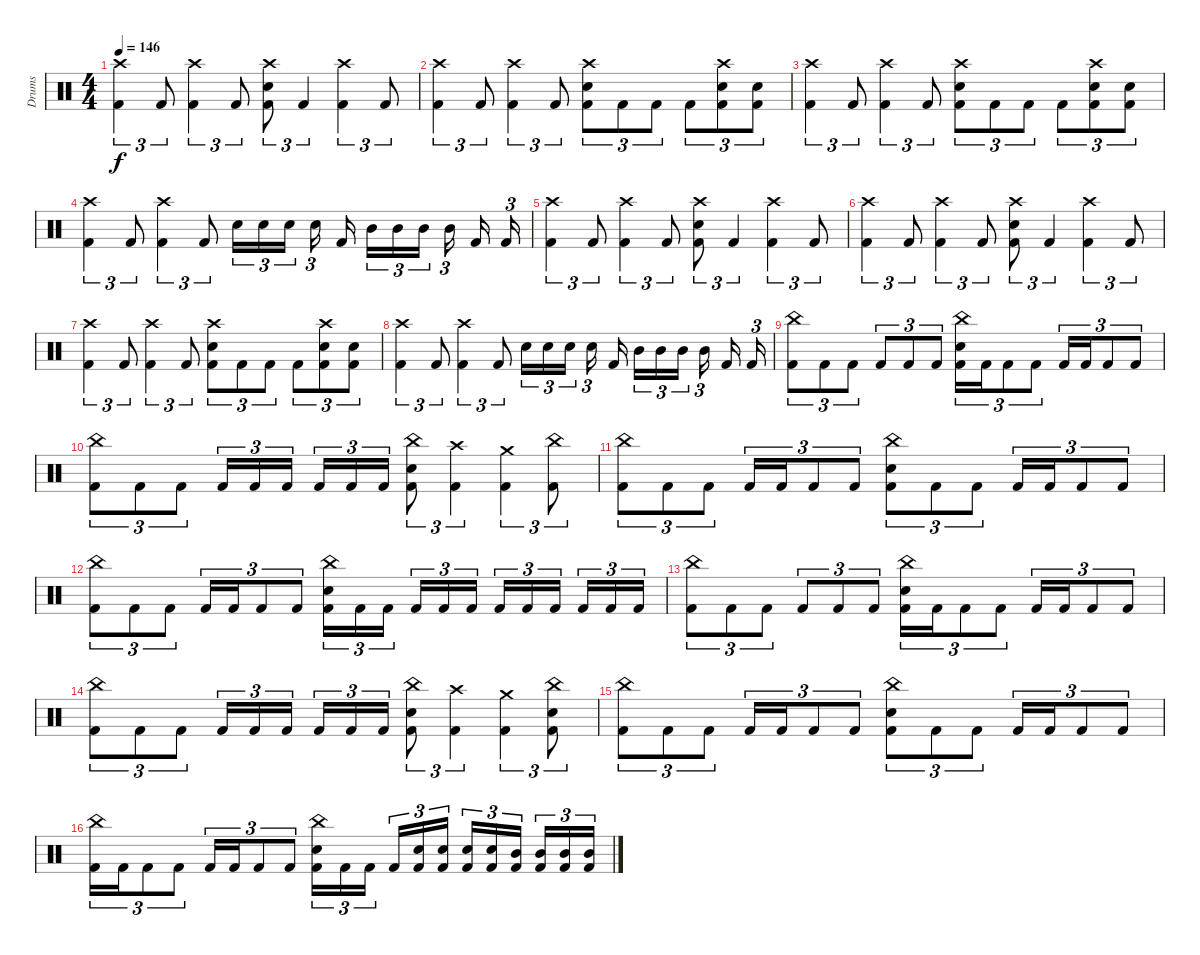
\track ("Drums" "Drums") {instrument percussion}
\staff {score}
\articulation defaults
\ts (4 4)
\tempo 146
\clef neutral
\ks c
("Crash high (hit)" "Kick (hit) 2").4{tu (3 2) dy f} "Kick (hit) 2".8{tu (3 2)} ("Crash high (hit)" "Kick (hit) 2").4{tu (3 2)} "Kick (hit) 2".8{tu (3 2)} ("Crash high (hit)" "Snare (hit) 2" "Kick (hit) 2").8{tu (3 2)} "Kick (hit) 2".4{tu (3 2)} ("Crash high (hit)" "Kick (hit) 2").4{tu (3 2)} "Kick (hit) 2".8{tu (3 2)} |
("Crash high (hit)" "Kick (hit) 2").4{tu (3 2)} "Kick (hit) 2".8{tu (3 2)} ("Crash high (hit)" "Kick (hit) 2").4{tu (3 2)} "Kick (hit) 2".8{tu (3 2)} ("Crash high (hit)" "Snare (hit) 2" "Kick (hit) 2").8{tu (3 2)} "Kick (hit) 2".8{tu (3 2)} "Kick (hit) 2".8{tu (3 2)} "Kick (hit) 2".8{tu (3 2)} ("Crash high (hit)" "Snare (hit) 2" "Kick (hit) 2").8{tu (3 2)} ("Snare (hit) 2" "Kick (hit) 2").8{tu (3 2)} |
("Crash high (hit)" "Kick (hit) 2").4{tu (3 2)} "Kick (hit) 2".8{tu (3 2)} ("Crash high (hit)" "Kick (hit) 2").4{tu (3 2)} "Kick (hit) 2".8{tu (3 2)} ("Crash high (hit)" "Snare (hit) 2" "Kick (hit) 2").8{tu (3 2)} "Kick (hit) 2".8{tu (3 2)} "Kick (hit) 2".8{tu (3 2)} "Kick (hit) 2".8{tu (3 2)} ("Crash high (hit)" "Snare (hit) 2" "Kick (hit) 2").8{tu (3 2)} ("Snare (hit) 2" "Kick (hit) 2").8{tu (3 2)} |
("Crash high (hit)" "Kick (hit) 2").4{tu (3 2)} "Kick (hit) 2".8{tu (3 2)} ("Crash high (hit)" "Kick (hit) 2").4{tu (3 2)} "Kick (hit) 2".8{tu (3 2)} "Snare (hit) 2".16{tu (3 2)} "Snare (hit) 2".16{tu (3 2)} "Snare (hit) 2".16{tu (3 2)} "Snare (hit) 2".16{tu (3 2)} "Kick (hit) 2".16 "Mid Tom (hit)".16{tu (3 2)} "Mid Tom (hit)".16{tu (3 2)} "Mid Tom (hit)".16{tu (3 2)} "Mid Tom (hit)".16{tu (3 2)} "Kick (hit) 2".16 "Kick (hit) 2".16{tu (3 2)} |
("Crash high (hit)" "Kick (hit) 2").4{tu (3 2)} "Kick (hit) 2".8{tu (3 2)} ("Crash high (hit)" "Kick (hit) 2").4{tu (3 2)} "Kick (hit) 2".8{tu (3 2)} ("Crash high (hit)" "Snare (hit) 2" "Kick (hit) 2").8{tu (3 2)} "Kick (hit) 2".4{tu (3 2)} ("Crash high (hit)" "Kick (hit) 2").4{tu (3 2)} "Kick (hit) 2".8{tu (3 2)} |
("Crash high (hit)" "Kick (hit) 2").4{tu (3 2)} "Kick (hit) 2".8{tu (3 2)} ("Crash high (hit)" "Kick (hit) 2").4{tu (3 2)} "Kick (hit) 2".8{tu (3 2)} ("Crash high (hit)" "Snare (hit) 2" "Kick (hit) 2").8{tu (3 2)} "Kick (hit) 2".4{tu (3 2)} ("Crash high (hit)" "Kick (hit) 2").4{tu (3 2)} "Kick (hit) 2".8{tu (3 2)} |
("Crash high (hit)" "Kick (hit) 2").4{tu (3 2)} "Kick (hit) 2".8{tu (3 2)} ("Crash high (hit)" "Kick (hit) 2").4{tu (3 2)} "Kick (hit) 2".8{tu (3 2)} ("Crash high (hit)" "Snare (hit) 2" "Kick (hit) 2").8{tu (3 2)} "Kick (hit) 2".8{tu (3 2)} "Kick (hit) 2".8{tu (3 2)} "Kick (hit) 2".8{tu (3 2)} ("Crash high (hit)" "Snare (hit) 2" "Kick (hit) 2").8{tu (3 2)} ("Snare (hit) 2" "Kick (hit) 2").8{tu (3 2)} |
("Crash high (hit)" "Kick (hit) 2").4{tu (3 2)} "Kick (hit) 2".8{tu (3 2)} ("Crash high (hit)" "Kick (hit) 2").4{tu (3 2)} "Kick (hit) 2".8{tu (3 2)} "Snare (hit) 2".16{tu (3 2)} "Snare (hit) 2".16{tu (3 2)} "Snare (hit) 2".16{tu (3 2)} "Snare (hit) 2".16{tu (3 2)} "Kick (hit) 2".16 "Mid Tom (hit)".16{tu (3 2)} "Mid Tom (hit)".16{tu (3 2)} "Mid Tom (hit)".16{tu (3 2)} "Mid Tom (hit)".16{tu (3 2)} "Kick (hit) 2".16 "Kick (hit) 2".16{tu (3 2)} |
("China (hit)" "Kick (hit) 2").8{tu (3 2)} "Kick (hit) 2".8{tu (3 2)} "Kick (hit) 2".8{tu (3 2)} "Kick (hit) 2".8{tu (3 2)} "Kick (hit) 2".8{tu (3 2)} "Kick (hit) 2".8{tu (3 2)} ("China (hit)" "Snare (hit) 2" "Kick (hit) 2").16{tu (3 2)} "Kick (hit) 2".16{tu (3 2)} "Kick (hit) 2".8{tu (3 2)} "Kick (hit) 2".8{tu (3 2)} "Kick (hit) 2".16{tu (3 2)} "Kick (hit) 2".16{tu (3 2)} "Kick (hit) 2".8{tu (3 2)} "Kick (hit) 2".8{tu (3 2)} |
("China (hit)" "Kick (hit) 2").8{tu (3 2)} "Kick (hit) 2".8{tu (3 2)} "Kick (hit) 2".8{tu (3 2)} "Kick (hit) 2".16{tu (3 2)} "Kick (hit) 2".16{tu (3 2)} "Kick (hit) 2".16{tu (3 2)} "Kick (hit) 2".16{tu (3 2)} "Kick (hit) 2".16{tu (3 2)} "Kick (hit) 2".16{tu (3 2)} ("China (hit)" "Snare (hit) 2" "Kick (hit) 2").8{tu (3 2)} ("Crash high (hit)" "Kick (hit) 2").4{tu (3 2)} ("Crash medium (hit)" "Kick (hit) 2").4{tu (3 2)} ("China (hit)" "Kick (hit) 2").8{tu (3 2)} |
("China (hit)" "Kick (hit) 2").8{tu (3 2)} "Kick (hit) 2".8{tu (3 2)} "Kick (hit) 2".8{tu (3 2)} "Kick (hit) 2".16{tu (3 2)} "Kick (hit) 2".16{tu (3 2)} "Kick (hit) 2".8{tu (3 2)} "Kick (hit) 2".8{tu (3 2)} ("China (hit)" "Snare (hit) 2" "Kick (hit) 2").8{tu (3 2)} "Kick (hit) 2".8{tu (3 2)} "Kick (hit) 2".8{tu (3 2)} "Kick (hit) 2".16{tu (3 2)} "Kick (hit) 2".16{tu (3 2)} "Kick (hit) 2".8{tu (3 2)} "Kick (hit) 2".8{tu (3 2)} |
("China (hit)" "Kick (hit) 2").8{tu (3 2)} "Kick (hit) 2".8{tu (3 2)} "Kick (hit) 2".8{tu (3 2)} "Kick (hit) 2".16{tu (3 2)} "Kick (hit) 2".16{tu (3 2)} "Kick (hit) 2".8{tu (3 2)} "Kick (hit) 2".8{tu (3 2)} ("China (hit)" "Snare (hit) 2" "Kick (hit) 2").16{tu (3 2)} "Kick (hit) 2".16{tu (3 2)} "Kick (hit) 2".16{tu (3 2)} "Kick (hit) 2".16{tu (3 2)} "Kick (hit) 2".16{tu (3 2)} "Kick (hit) 2".16{tu (3 2)} "Kick (hit) 2".16{tu (3 2)} "Kick (hit) 2".16{tu (3 2)} "Kick (hit) 2".16{tu (3 2)} "Kick (hit) 2".16{tu (3 2)} "Kick (hit) 2".16{tu (3 2)} "Kick (hit) 2".16{tu (3 2)} |
("China (hit)" "Kick (hit) 2").8{tu (3 2)} "Kick (hit) 2".8{tu (3 2)} "Kick (hit) 2".8{tu (3 2)} "Kick (hit) 2".8{tu (3 2)} "Kick (hit) 2".8{tu (3 2)} "Kick (hit) 2".8{tu (3 2)} ("China (hit)" "Snare (hit) 2" "Kick (hit) 2").16{tu (3 2)} "Kick (hit) 2".16{tu (3 2)} "Kick (hit) 2".8{tu (3 2)} "Kick (hit) 2".8{tu (3 2)} "Kick (hit) 2".16{tu (3 2)} "Kick (hit) 2".16{tu (3 2)} "Kick (hit) 2".8{tu (3 2)} "Kick (hit) 2".8{tu (3 2)} |
("China (hit)" "Kick (hit) 2").8{tu (3 2)} "Kick (hit) 2".8{tu (3 2)} "Kick (hit) 2".8{tu (3 2)} "Kick (hit) 2".16{tu (3 2)} "Kick (hit) 2".16{tu (3 2)} "Kick (hit) 2".16{tu (3 2)} "Kick (hit) 2".16{tu (3 2)} "Kick (hit) 2".16{tu (3 2)} "Kick (hit) 2".16{tu (3 2)} ("China (hit)" "Snare (hit) 2" "Kick (hit) 2").8{tu (3 2)} ("Crash high (hit)" "Kick (hit) 2").4{tu (3 2)} ("Crash medium (hit)" "Kick (hit) 2").4{tu (3 2)} ("China (hit)" "Snare (hit) 2" "Kick (hit) 2").8{tu (3 2)} |
("China (hit)" "Kick (hit) 2").8{tu (3 2)} "Kick (hit) 2".8{tu (3 2)} "Kick (hit) 2".8{tu (3 2)} "Kick (hit) 2".16{tu (3 2)} "Kick (hit) 2".16{tu (3 2)} "Kick (hit) 2".8{tu (3 2)} "Kick (hit) 2".8{tu (3 2)} ("China (hit)" "Snare (hit) 2" "Kick (hit) 2").8{tu (3 2)} "Kick (hit) 2".8{tu (3 2)} "Kick (hit) 2".8{tu (3 2)} "Kick (hit) 2".16{tu (3 2)} "Kick (hit) 2".16{tu (3 2)} "Kick (hit) 2".8{tu (3 2)} "Kick (hit) 2".8{tu (3 2)} |
("China (hit)" "Kick (hit) 2").16{tu (3 2)} "Kick (hit) 2".16{tu (3 2)} "Kick (hit) 2".8{tu (3 2)} "Kick (hit) 2".8{tu (3 2)} "Kick (hit) 2".16{tu (3 2)} "Kick (hit) 2".16{tu (3 2)} "Kick (hit) 2".8{tu (3 2)} "Kick (hit) 2".8{tu (3 2)} ("China (hit)" "Snare (hit) 2" "Kick (hit) 2").16{tu (3 2)} "Kick (hit) 2".16{tu (3 2)} "Kick (hit) 2".16{tu (3 2)} "Kick (hit) 2".16{tu (3 2)} ("Snare (hit) 2" "Kick (hit) 2").16{tu (3 2)} ("Snare (hit) 2" "Kick (hit) 2").16{tu (3 2)} ("Snare (hit) 2" "Kick (hit) 2").16{tu (3 2)} ("Snare (hit) 2" "Kick (hit) 2").16{tu (3 2)} ("Mid Tom (hit)" "Kick (hit) 2").16{tu (3 2)} ("Mid Tom (hit)" "Kick (hit) 2").16{tu (3 2)} ("Mid Tom (hit)" "Kick (hit) 2").16{tu (3 2)} ("Mid Tom (hit)" "Kick (hit) 2").16{tu (3 2)}
